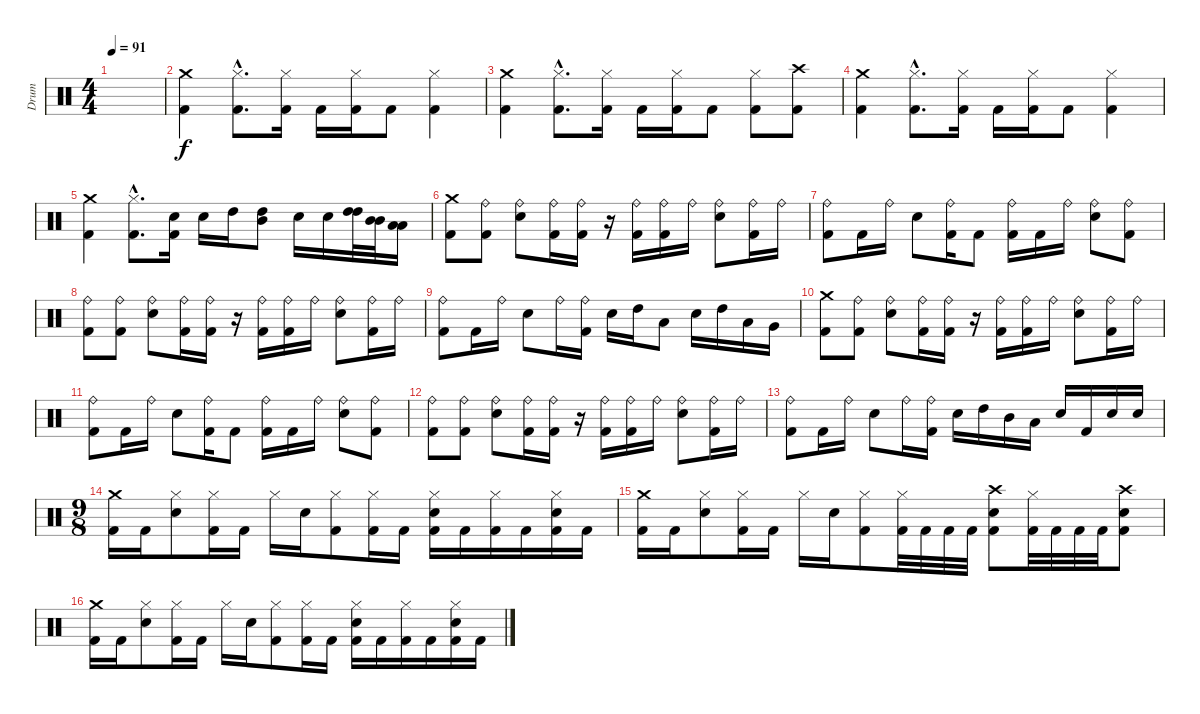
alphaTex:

\track ("Drum" "Drum") {instrument percussion}
\staff {score}
\articulation defaults
\ts (4 4)
\tempo 91
\clef neutral
\ks c
|
("Crash medium (hit)" "Kick (hit) 2").4 ("Hi-Hat (closed)"{hac} "Kick (hit) 2"{hac}).8{d} ("Hi-Hat (closed)" "Kick (hit) 2").16 "Kick (hit) 2".16 ("Hi-Hat (closed)" "Kick (hit) 2").16 "Kick (hit) 2".8 ("Hi-Hat (closed)" "Kick (hit) 2").4 |
("Crash medium (hit)" "Kick (hit) 2").4 ("Hi-Hat (closed)"{hac} "Kick (hit) 2"{hac}).8{d} ("Hi-Hat (closed)" "Kick (hit) 2").16 "Kick (hit) 2".16 ("Hi-Hat (closed)" "Kick (hit) 2").16 "Kick (hit) 2".8 ("Hi-Hat (closed)" "Kick (hit) 2").8 ("Crash high (hit)" "Kick (hit) 2").8 |
("Crash medium (hit)" "Kick (hit) 2").4 ("Hi-Hat (closed)"{hac} "Kick (hit) 2"{hac}).8{d} ("Hi-Hat (closed)" "Kick (hit) 2").16 "Kick (hit) 2".16 ("Hi-Hat (closed)" "Kick (hit) 2").16 "Kick (hit) 2".8 ("Hi-Hat (closed)" "Kick (hit) 2").4 |
("Crash medium (hit)" "Kick (hit) 2").4 ("Hi-Hat (closed)"{hac} "Kick (hit) 2"{hac}).8{d} ("Snare (hit) 2" "Kick (hit) 2").16 "Snare (hit) 2".16 "High Tom (hit)".16 ("Mid Tom (hit)" "High Tom (hit)").8 "Snare (hit) 2".16 "Snare (hit) 2".16 ("High Tom (hit)" "High Tom (hit)").32 ("Mid Tom (hit)" "Mid Tom (hit)").32 ("Low Tom (hit)" "Low Tom (hit)").16 |
("Crash medium (hit)" "Kick (hit) 2").8 ("Ride (bell)" "Kick (hit) 2").8 ("Ride (bell)" "Snare (hit) 2").8 ("Ride (bell)" "Kick (hit) 2").16 ("Ride (bell)" "Kick (hit) 2").16 r.16 ("Ride (bell)" "Kick (hit) 2").16 ("Ride (bell)" "Kick (hit) 2").16 "Ride (bell)".16 ("Ride (bell)" "Snare (hit) 2").8 ("Ride (bell)" "Kick (hit) 2").16 "Ride (bell)".16 |
("Ride (bell)" "Kick (hit) 2").8 "Kick (hit) 2".16 "Ride (bell)".16 "Snare (hit) 2".8 ("Ride (bell)" "Kick (hit) 2").16 "Kick (hit) 2".8 ("Ride (bell)" "Kick (hit) 2").16 "Kick (hit) 2".16 "Ride (bell)".16 ("Ride (bell)" "Snare (hit) 2").8 ("Ride (bell)" "Kick (hit) 2").8 |
("Ride (bell)" "Kick (hit) 2").8 ("Ride (bell)" "Kick (hit) 2").8 ("Ride (bell)" "Snare (hit) 2").8 ("Ride (bell)" "Kick (hit) 2").16 ("Ride (bell)" "Kick (hit) 2").16 r.16 ("Ride (bell)" "Kick (hit) 2").16 ("Ride (bell)" "Kick (hit) 2").16 "Ride (bell)".16 ("Ride (bell)" "Snare (hit) 2").8 ("Ride (bell)" "Kick (hit) 2").16 "Ride (bell)".16 |
("Ride (bell)" "Kick (hit) 2").8 "Kick (hit) 2".16 "Ride (bell)".16 "Snare (hit) 2".8 "Ride (bell)".16 ("Ride (bell)" "Kick (hit) 2").16 "Snare (hit) 2".16 "High Tom (hit)".16 "Low Tom (hit)".8 "Snare (hit) 2".16 "High Tom (hit)".16 "Low Tom (hit)".16 "Very Low Tom (hit)".16 |
("Crash medium (hit)" "Kick (hit) 2").8 ("Ride (bell)" "Kick (hit) 2").8 ("Ride (bell)" "Snare (hit) 2").8 ("Ride (bell)" "Kick (hit) 2").16 ("Ride (bell)" "Kick (hit) 2").16 r.16 ("Ride (bell)" "Kick (hit) 2").16 ("Ride (bell)" "Kick (hit) 2").16 "Ride (bell)".16 ("Ride (bell)" "Snare (hit) 2").8 ("Ride (bell)" "Kick (hit) 2").16 "Ride (bell)".16 |
("Ride (bell)" "Kick (hit) 2").8 "Kick (hit) 2".16 "Ride (bell)".16 "Snare (hit) 2".8 ("Ride (bell)" "Kick (hit) 2").16 "Kick (hit) 2".8 ("Ride (bell)" "Kick (hit) 2").16 "Kick (hit) 2".16 "Ride (bell)".16 ("Ride (bell)" "Snare (hit) 2").8 ("Ride (bell)" "Kick (hit) 2").8 |
("Ride (bell)" "Kick (hit) 2").8 ("Ride (bell)" "Kick (hit) 2").8 ("Ride (bell)" "Snare (hit) 2").8 ("Ride (bell)" "Kick (hit) 2").16 ("Ride (bell)" "Kick (hit) 2").16 r.16 ("Ride (bell)" "Kick (hit) 2").16 ("Ride (bell)" "Kick (hit) 2").16 "Ride (bell)".16 ("Ride (bell)" "Snare (hit) 2").8 ("Ride (bell)" "Kick (hit) 2").16 "Ride (bell)".16 |
("Ride (bell)" "Kick (hit) 2").8 "Kick (hit) 2".16 "Ride (bell)".16 "Snare (hit) 2".8 "Ride (bell)".16 ("Ride (bell)" "Kick (hit) 2").16 "Snare (hit) 2".16 "High Tom (hit)".16 "Mid Tom (hit)".16 "Low Tom (hit)".16 "Snare (hit) 2".16 "Kick (hit) 2".16 "Snare (hit) 2".16 "Snare (hit) 2".16 |
\ts (9 8)
("Crash medium (hit)" "Kick (hit) 2").16 "Kick (hit) 2".16 ("Hi-Hat (closed)" "Snare (hit) 2").8 ("Hi-Hat (closed)" "Kick (hit) 2").16 "Kick (hit) 2".16 "Hi-Hat (closed)".16 "Snare (hit) 2".16 ("Hi-Hat (closed)" "Kick (hit) 2").8 ("Hi-Hat (closed)" "Kick (hit) 2").16 "Kick (hit) 2".16 ("Hi-Hat (closed)" "Snare (hit) 2" "Kick (hit) 2").16 "Kick (hit) 2".16 ("Hi-Hat (closed)" "Kick (hit) 2").16 "Kick (hit) 2".16 ("Hi-Hat (closed)" "Snare (hit) 2" "Kick (hit) 2").16 "Kick (hit) 2".16 |
("Crash medium (hit)" "Kick (hit) 2").16 "Kick (hit) 2".16 ("Hi-Hat (closed)" "Snare (hit) 2").8 ("Hi-Hat (closed)" "Kick (hit) 2").16 "Kick (hit) 2".16 "Hi-Hat (closed)".16 "Snare (hit) 2".16 ("Hi-Hat (closed)" "Kick (hit) 2").8 ("Hi-Hat (closed)" "Kick (hit) 2").32 "Kick (hit) 2".32 "Kick (hit) 2".32 "Kick (hit) 2".32 ("Crash high (hit)" "Snare (hit) 2" "Kick (hit) 2").8 ("Hi-Hat (closed)" "Kick (hit) 2").32 "Kick (hit) 2".32 "Kick (hit) 2".32 "Kick (hit) 2".32 ("Crash high (hit)" "Snare (hit) 2" "Kick (hit) 2").8 |
("Crash medium (hit)" "Kick (hit) 2").16 "Kick (hit) 2".16 ("Hi-Hat (closed)" "Snare (hit) 2").8 ("Hi-Hat (closed)" "Kick (hit) 2").16 "Kick (hit) 2".16 "Hi-Hat (closed)".16 "Snare (hit) 2".16 ("Hi-Hat (closed)" "Kick (hit) 2").8 ("Hi-Hat (closed)" "Kick (hit) 2").16 "Kick (hit) 2".16 ("Hi-Hat (closed)" "Snare (hit) 2" "Kick (hit) 2").16 "Kick (hit) 2".16 ("Hi-Hat (closed)" "Kick (hit) 2").16 "Kick (hit) 2".16 ("Hi-Hat (closed)" "Snare (hit) 2" "Kick (hit) 2").16 "Kick (hit) 2".16
